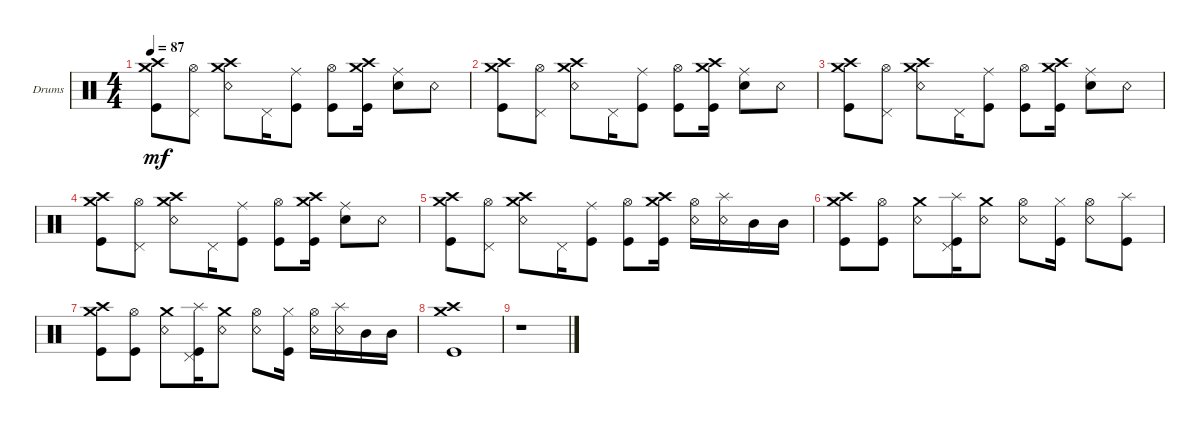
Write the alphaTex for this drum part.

\defaultSystemsLayout 4
\bracketExtendMode groupsimilarinstruments
\firstSystemTrackNameOrientation horizontal
\otherSystemsTrackNameOrientation horizontal
\track ("Drumkit" "Drums") {multiBarRest instrument percussion}
\staff {score}
\articulation defaults
\ts (4 4)
\tempo 87
\clef neutral
\ks c
("Kick (hit)" "Crash high (hit)" "Crash medium (hit)").8{dy mf} ("Hi-Hat (open)" "Pedal Hi-Hat (hit)").8 ("Snare (rim shot)" "Crash high (hit)" "Crash medium (hit)").8 "Pedal Hi-Hat (hit)".16 ("Ride (middle)" "Kick (hit)").8 ("Kick (hit)" "Hi-Hat (open)").8 ("Kick (hit)" "Crash high (hit)" "Crash medium (hit)").16 ("Ride (middle)" "Snare (hit) 2").8 "Snare (rim shot)".8 |
("Kick (hit)" "Crash high (hit)" "Crash medium (hit)").8 ("Hi-Hat (open)" "Pedal Hi-Hat (hit)").8 ("Snare (rim shot)" "Crash high (hit)" "Crash medium (hit)").8 "Pedal Hi-Hat (hit)".16 ("Ride (middle)" "Kick (hit)").8 ("Kick (hit)" "Hi-Hat (open)").8 ("Kick (hit)" "Crash high (hit)" "Crash medium (hit)").16 ("Ride (middle)" "Snare (hit) 2").8 "Snare (rim shot)".8 |
("Kick (hit)" "Crash high (hit)" "Crash medium (hit)").8 ("Hi-Hat (open)" "Pedal Hi-Hat (hit)").8 ("Snare (rim shot)" "Crash high (hit)" "Crash medium (hit)").8 "Pedal Hi-Hat (hit)".16 ("Ride (middle)" "Kick (hit)").8 ("Kick (hit)" "Hi-Hat (open)").8 ("Kick (hit)" "Crash high (hit)" "Crash medium (hit)").16 ("Ride (middle)" "Snare (hit) 2").8 "Snare (rim shot)".8 |
("Kick (hit)" "Crash high (hit)" "Crash medium (hit)").8 ("Hi-Hat (open)" "Pedal Hi-Hat (hit)").8 ("Snare (rim shot)" "Crash high (hit)" "Crash medium (hit)").8 "Pedal Hi-Hat (hit)".16 ("Ride (middle)" "Kick (hit)").8 ("Kick (hit)" "Hi-Hat (open)").8 ("Kick (hit)" "Crash high (hit)" "Crash medium (hit)").16 ("Ride (middle)" "Snare (hit) 2").8 "Snare (rim shot)".8 |
("Kick (hit)" "Crash high (hit)" "Crash medium (hit)").8 ("Hi-Hat (open)" "Pedal Hi-Hat (hit)").8 ("Snare (rim shot)" "Crash high (hit)" "Crash medium (hit)").8 "Pedal Hi-Hat (hit)".16 ("Ride (middle)" "Kick (hit)").8 ("Kick (hit)" "Hi-Hat (open)").8 ("Kick (hit)" "Crash high (hit)" "Crash medium (hit)").16 ("Snare (rim shot)" "Hi-Hat (open)").16 ("Splash (hit)" "Snare (rim shot)").16 "Mid Tom (hit)".16 "Mid Tom (hit)".16 |
("Kick (hit)" "Crash high (hit)" "Crash medium (hit)").8 ("Kick (hit)" "Hi-Hat (open)").8 ("Snare (rim shot)" "Crash medium (hit)").8 ("Kick (hit)" "Pedal Hi-Hat (hit)" "Splash (hit)").16 ("Snare (rim shot)" "Crash medium (hit)").8 ("Snare (rim shot)" "Hi-Hat (open)").8 ("Kick (hit)" "Hi-Hat (closed)").16 ("Snare (rim shot)" "Hi-Hat (open)").8 ("Kick (hit)" "Splash (hit)").8 |
("Kick (hit)" "Crash high (hit)" "Crash medium (hit)").8 ("Kick (hit)" "Hi-Hat (open)").8 ("Snare (rim shot)" "Crash medium (hit)").8 ("Kick (hit)" "Pedal Hi-Hat (hit)" "Splash (hit)").16 ("Snare (rim shot)" "Crash medium (hit)").8 ("Snare (rim shot)" "Hi-Hat (open)").8 ("Kick (hit)" "Hi-Hat (closed)").16 ("Snare (rim shot)" "Hi-Hat (open)").16 ("Splash (hit)" "Snare (rim shot)").16 "Mid Tom (hit)".16 "Mid Tom (hit)".16 |
("Kick (hit)" "Crash high (hit)" "Crash medium (hit)").1 |
r.1
